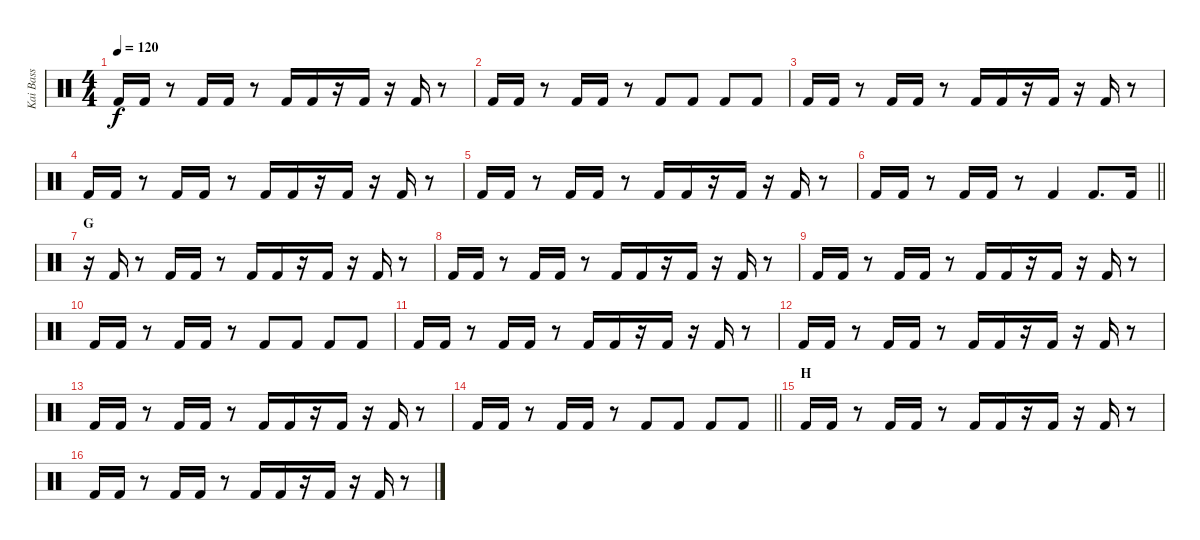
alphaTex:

\track ("Kai Bass" "Kai Bass") {instrument percussion}
\staff {score}
\articulation defaults
\ts (4 4)
\tempo 120
\clef neutral
\ks c "Kick (hit) 2".16{dy f} "Kick (hit) 2".16
r.8 "Kick (hit) 2".16 "Kick (hit) 2".16 r.8 "Kick (hit) 2".16 "Kick (hit) 2".16 r.16 "Kick (hit) 2".16 r.16 "Kick (hit) 2".16 r.8 |
"Kick (hit) 2".16 "Kick (hit) 2".16 r.8 "Kick (hit) 2".16 "Kick (hit) 2".16 r.8 "Kick (hit) 2".8 "Kick (hit) 2".8 "Kick (hit) 2".8 "Kick (hit) 2".8 |
"Kick (hit) 2".16 "Kick (hit) 2".16 r.8 "Kick (hit) 2".16 "Kick (hit) 2".16 r.8 "Kick (hit) 2".16 "Kick (hit) 2".16 r.16 "Kick (hit) 2".16 r.16 "Kick (hit) 2".16 r.8 |
"Kick (hit) 2".16 "Kick (hit) 2".16 r.8 "Kick (hit) 2".16 "Kick (hit) 2".16 r.8 "Kick (hit) 2".16 "Kick (hit) 2".16 r.16 "Kick (hit) 2".16 r.16 "Kick (hit) 2".16 r.8 |
"Kick (hit) 2".16 "Kick (hit) 2".16 r.8 "Kick (hit) 2".16 "Kick (hit) 2".16 r.8 "Kick (hit) 2".16 "Kick (hit) 2".16 r.16 "Kick (hit) 2".16 r.16 "Kick (hit) 2".16 r.8 |
\barLineRight lightlight "Kick (hit) 2".16 "Kick (hit) 2".16
r.8 "Kick (hit) 2".16 "Kick (hit) 2".16 r.8 "Kick (hit) 2".4 "Kick (hit) 2".8{d} "Kick (hit) 2".16 |
\section ("" "G")
r.16 "Kick (hit) 2".16 r.8 "Kick (hit) 2".16 "Kick (hit) 2".16 r.8 "Kick (hit) 2".16 "Kick (hit) 2".16 r.16 "Kick (hit) 2".16 r.16 "Kick (hit) 2".16 r.8 |
"Kick (hit) 2".16 "Kick (hit) 2".16 r.8 "Kick (hit) 2".16 "Kick (hit) 2".16 r.8 "Kick (hit) 2".16 "Kick (hit) 2".16 r.16 "Kick (hit) 2".16 r.16 "Kick (hit) 2".16 r.8 |
"Kick (hit) 2".16 "Kick (hit) 2".16 r.8 "Kick (hit) 2".16 "Kick (hit) 2".16 r.8 "Kick (hit) 2".16 "Kick (hit) 2".16 r.16 "Kick (hit) 2".16 r.16 "Kick (hit) 2".16 r.8 |
"Kick (hit) 2".16 "Kick (hit) 2".16 r.8 "Kick (hit) 2".16 "Kick (hit) 2".16 r.8 "Kick (hit) 2".8 "Kick (hit) 2".8 "Kick (hit) 2".8 "Kick (hit) 2".8 |
"Kick (hit) 2".16 "Kick (hit) 2".16 r.8 "Kick (hit) 2".16 "Kick (hit) 2".16 r.8 "Kick (hit) 2".16 "Kick (hit) 2".16 r.16 "Kick (hit) 2".16 r.16 "Kick (hit) 2".16 r.8 |
"Kick (hit) 2".16 "Kick (hit) 2".16 r.8 "Kick (hit) 2".16 "Kick (hit) 2".16 r.8 "Kick (hit) 2".16 "Kick (hit) 2".16 r.16 "Kick (hit) 2".16 r.16 "Kick (hit) 2".16 r.8 |
"Kick (hit) 2".16 "Kick (hit) 2".16 r.8 "Kick (hit) 2".16 "Kick (hit) 2".16 r.8 "Kick (hit) 2".16 "Kick (hit) 2".16 r.16 "Kick (hit) 2".16 r.16 "Kick (hit) 2".16 r.8 |
\barLineRight lightlight "Kick (hit) 2".16 "Kick (hit) 2".16
r.8 "Kick (hit) 2".16 "Kick (hit) 2".16 r.8 "Kick (hit) 2".8 "Kick (hit) 2".8 "Kick (hit) 2".8 "Kick (hit) 2".8 |
\section ("" "H")
"Kick (hit) 2".16 "Kick (hit) 2".16 r.8 "Kick (hit) 2".16 "Kick (hit) 2".16 r.8 "Kick (hit) 2".16 "Kick (hit) 2".16 r.16 "Kick (hit) 2".16 r.16 "Kick (hit) 2".16 r.8 |
"Kick (hit) 2".16 "Kick (hit) 2".16 r.8 "Kick (hit) 2".16 "Kick (hit) 2".16 r.8 "Kick (hit) 2".16 "Kick (hit) 2".16 r.16 "Kick (hit) 2".16 r.16 "Kick (hit) 2".16 r.8
